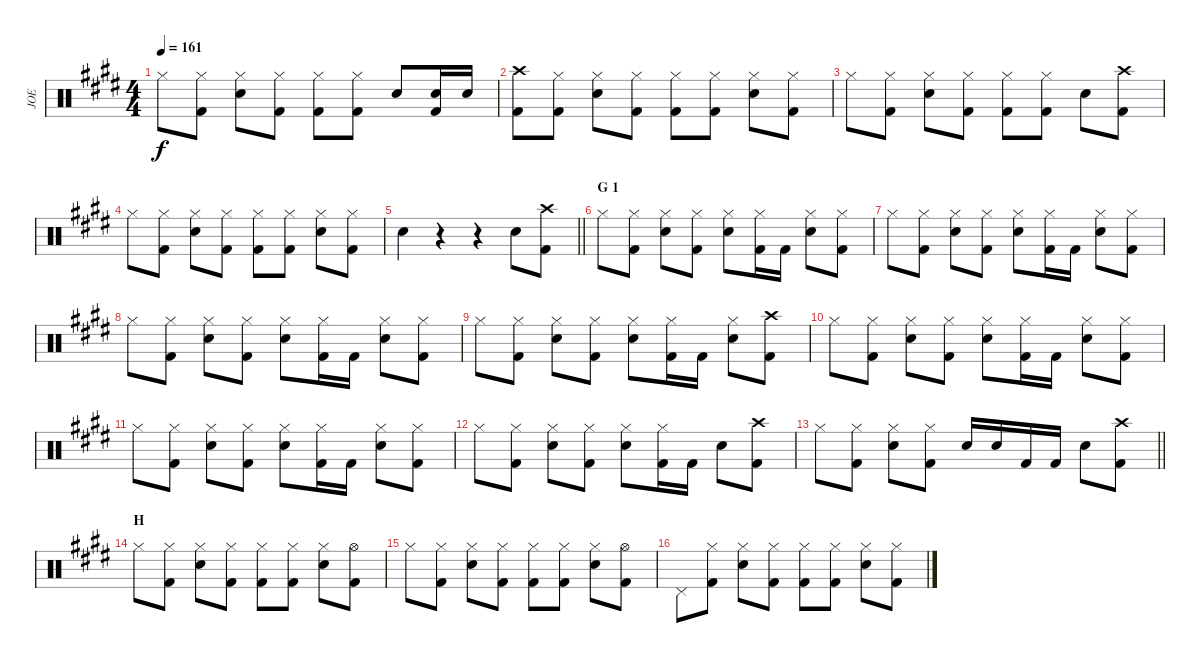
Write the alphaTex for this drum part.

\track ("JOE" "JOE") {instrument percussion}
\staff {score}
\articulation defaults
\ts (4 4)
\tempo 161
\clef neutral
\ks e "Hi-Hat (closed)".8{dy f}
("Hi-Hat (closed)" "Kick (hit) 2").8 ("Hi-Hat (closed)" "Snare (hit) 2").8 ("Hi-Hat (closed)" "Kick (hit) 2").8 ("Hi-Hat (closed)" "Kick (hit) 2").8 ("Hi-Hat (closed)" "Kick (hit) 2").8 "Snare (hit) 2".8 ("Snare (hit) 2" "Kick (hit) 2").16 "Snare (hit) 2".16 |
("Crash high (hit)" "Kick (hit) 2").8 ("Hi-Hat (closed)" "Kick (hit) 2").8 ("Hi-Hat (closed)" "Snare (hit) 2").8 ("Hi-Hat (closed)" "Kick (hit) 2").8 ("Hi-Hat (closed)" "Kick (hit) 2").8 ("Hi-Hat (closed)" "Kick (hit) 2").8 ("Hi-Hat (closed)" "Snare (hit) 2").8 ("Hi-Hat (closed)" "Kick (hit) 2").8 |
"Hi-Hat (closed)".8 ("Hi-Hat (closed)" "Kick (hit) 2").8 ("Hi-Hat (closed)" "Snare (hit) 2").8 ("Hi-Hat (closed)" "Kick (hit) 2").8 ("Hi-Hat (closed)" "Kick (hit) 2").8 ("Hi-Hat (closed)" "Kick (hit) 2").8 "Snare (hit) 2".8 ("Crash high (hit)" "Kick (hit) 2").8 |
"Hi-Hat (closed)".8 ("Hi-Hat (closed)" "Kick (hit) 2").8 ("Hi-Hat (closed)" "Snare (hit) 2").8 ("Hi-Hat (closed)" "Kick (hit) 2").8 ("Hi-Hat (closed)" "Kick (hit) 2").8 ("Hi-Hat (closed)" "Kick (hit) 2").8 ("Hi-Hat (closed)" "Snare (hit) 2").8 ("Hi-Hat (closed)" "Kick (hit) 2").8 |
\barLineRight lightlight "Snare (hit) 2".4
r.4 r.4 "Snare (hit) 2".8 ("Crash high (hit)" "Kick (hit) 2").8 |
\section ("" "G 1")
"Hi-Hat (closed)".8 ("Hi-Hat (closed)" "Kick (hit) 2").8 ("Hi-Hat (closed)" "Snare (hit) 2").8 ("Hi-Hat (closed)" "Kick (hit) 2").8 ("Hi-Hat (closed)" "Snare (hit) 2").8 ("Hi-Hat (closed)" "Kick (hit) 2").16 "Kick (hit) 2".16 ("Hi-Hat (closed)" "Snare (hit) 2").8 ("Hi-Hat (closed)" "Kick (hit) 2").8 |
"Hi-Hat (closed)".8 ("Hi-Hat (closed)" "Kick (hit) 2").8 ("Hi-Hat (closed)" "Snare (hit) 2").8 ("Hi-Hat (closed)" "Kick (hit) 2").8 ("Hi-Hat (closed)" "Snare (hit) 2").8 ("Hi-Hat (closed)" "Kick (hit) 2").16 "Kick (hit) 2".16 ("Hi-Hat (closed)" "Snare (hit) 2").8 ("Hi-Hat (closed)" "Kick (hit) 2").8 |
"Hi-Hat (closed)".8 ("Hi-Hat (closed)" "Kick (hit) 2").8 ("Hi-Hat (closed)" "Snare (hit) 2").8 ("Hi-Hat (closed)" "Kick (hit) 2").8 ("Hi-Hat (closed)" "Snare (hit) 2").8 ("Hi-Hat (closed)" "Kick (hit) 2").16 "Kick (hit) 2".16 ("Hi-Hat (closed)" "Snare (hit) 2").8 ("Hi-Hat (closed)" "Kick (hit) 2").8 |
"Hi-Hat (closed)".8 ("Hi-Hat (closed)" "Kick (hit) 2").8 ("Hi-Hat (closed)" "Snare (hit) 2").8 ("Hi-Hat (closed)" "Kick (hit) 2").8 ("Hi-Hat (closed)" "Snare (hit) 2").8 ("Hi-Hat (closed)" "Kick (hit) 2").16 "Kick (hit) 2".16 ("Hi-Hat (closed)" "Snare (hit) 2").8 ("Crash high (hit)" "Kick (hit) 2").8 |
"Hi-Hat (closed)".8 ("Hi-Hat (closed)" "Kick (hit) 2").8 ("Hi-Hat (closed)" "Snare (hit) 2").8 ("Hi-Hat (closed)" "Kick (hit) 2").8 ("Hi-Hat (closed)" "Snare (hit) 2").8 ("Hi-Hat (closed)" "Kick (hit) 2").16 "Kick (hit) 2".16 ("Hi-Hat (closed)" "Snare (hit) 2").8 ("Hi-Hat (closed)" "Kick (hit) 2").8 |
"Hi-Hat (closed)".8 ("Hi-Hat (closed)" "Kick (hit) 2").8 ("Hi-Hat (closed)" "Snare (hit) 2").8 ("Hi-Hat (closed)" "Kick (hit) 2").8 ("Hi-Hat (closed)" "Snare (hit) 2").8 ("Hi-Hat (closed)" "Kick (hit) 2").16 "Kick (hit) 2".16 ("Hi-Hat (closed)" "Snare (hit) 2").8 ("Hi-Hat (closed)" "Kick (hit) 2").8 |
"Hi-Hat (closed)".8 ("Hi-Hat (closed)" "Kick (hit) 2").8 ("Hi-Hat (closed)" "Snare (hit) 2").8 ("Hi-Hat (closed)" "Kick (hit) 2").8 ("Hi-Hat (closed)" "Snare (hit) 2").8 ("Hi-Hat (closed)" "Kick (hit) 2").16 "Kick (hit) 2".16 "Snare (hit) 2".8 ("Crash high (hit)" "Kick (hit) 2").8 |
\barLineRight lightlight "Hi-Hat (closed)".8
("Hi-Hat (closed)" "Kick (hit) 2").8 ("Hi-Hat (closed)" "Snare (hit) 2").8 ("Hi-Hat (closed)" "Kick (hit) 2").8 "Snare (hit) 2".16 "Snare (hit) 2".16 "Kick (hit) 2".16 "Kick (hit) 2".16 "Snare (hit) 2".8 ("Crash high (hit)" "Kick (hit) 2").8 |
\section ("" "H")
"Hi-Hat (closed)".8 ("Hi-Hat (closed)" "Kick (hit) 2").8 ("Hi-Hat (closed)" "Snare (hit) 2").8 ("Hi-Hat (closed)" "Kick (hit) 2").8 ("Hi-Hat (closed)" "Kick (hit) 2").8 ("Hi-Hat (closed)" "Kick (hit) 2").8 ("Hi-Hat (closed)" "Snare (hit) 2").8 ("Hi-Hat (open)" "Kick (hit) 2").8 |
"Hi-Hat (closed)".8 ("Hi-Hat (closed)" "Kick (hit) 2").8 ("Hi-Hat (closed)" "Snare (hit) 2").8 ("Hi-Hat (closed)" "Kick (hit) 2").8 ("Hi-Hat (closed)" "Kick (hit) 2").8 ("Hi-Hat (closed)" "Kick (hit) 2").8 ("Hi-Hat (closed)" "Snare (hit) 2").8 ("Hi-Hat (open)" "Kick (hit) 2").8 |
"Pedal Hi-Hat (hit)".8 ("Hi-Hat (closed)" "Kick (hit) 2").8 ("Hi-Hat (closed)" "Snare (hit) 2").8 ("Hi-Hat (closed)" "Kick (hit) 2").8 ("Hi-Hat (closed)" "Kick (hit) 2").8 ("Hi-Hat (closed)" "Kick (hit) 2").8 ("Hi-Hat (closed)" "Snare (hit) 2").8 ("Hi-Hat (closed)" "Kick (hit) 2").8
